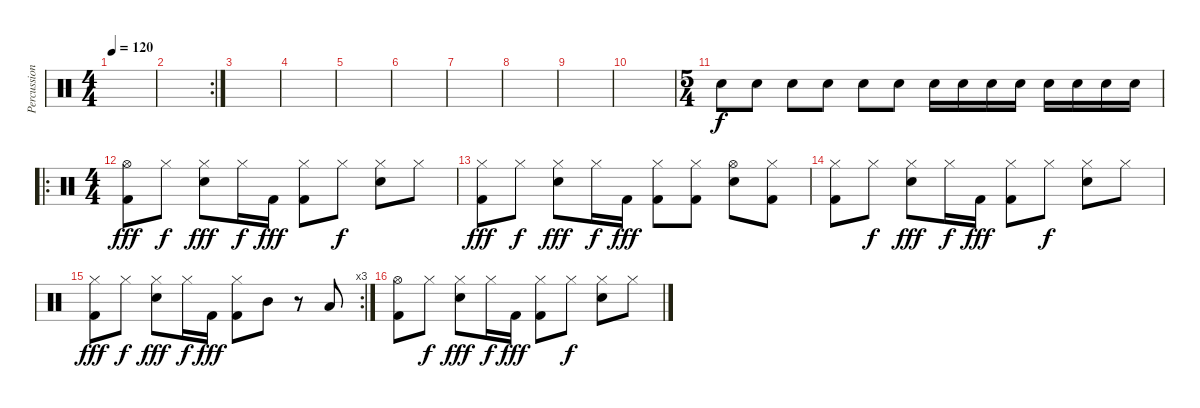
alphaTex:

\track ("Percussions" "Percussion") {instrument percussion}
\staff {score}
\articulation defaults
\ts (4 4)
\tempo 120
\clef neutral
\ks c
|
\rc 2
|
|
|
|
|
|
|
|
|
\ts (5 4)
"Snare (hit) 2".8{dy f} "Snare (hit) 2".8 "Snare (hit) 2".8 "Snare (hit) 2".8 "Snare (hit) 2".8 "Snare (hit) 2".8 "Snare (hit) 2".16 "Snare (hit) 2".16 "Snare (hit) 2".16 "Snare (hit) 2".16 "Snare (hit) 2".16 "Snare (hit) 2".16 "Snare (hit) 2".16 "Snare (hit) 2".16 |
\ro
\ts (4 4)
("Kick (hit) 2" "Hi-Hat (open)").8{dy fff} "Hi-Hat (closed)".8{dy f} ("Snare (hit) 2" "Hi-Hat (closed)").8{dy fff} "Hi-Hat (closed)".16{dy f} "Kick (hit) 2".16{dy fff} ("Kick (hit) 2" "Hi-Hat (closed)").8 "Hi-Hat (closed)".8{dy f} ("Snare (hit) 2" "Hi-Hat (closed)").8 "Hi-Hat (closed)".8 |
("Kick (hit) 2" "Hi-Hat (closed)").8{dy fff} "Hi-Hat (closed)".8{dy f} ("Snare (hit) 2" "Hi-Hat (closed)").8{dy fff} "Hi-Hat (closed)".16{dy f} "Kick (hit) 2".16{dy fff} ("Kick (hit) 2" "Hi-Hat (closed)").8 ("Kick (hit) 2" "Hi-Hat (closed)").8 ("Snare (hit) 2" "Hi-Hat (open)").8 ("Kick (hit) 2" "Hi-Hat (closed)").8 |
("Kick (hit) 2" "Hi-Hat (closed)").8 "Hi-Hat (closed)".8{dy f} ("Snare (hit) 2" "Hi-Hat (closed)").8{dy fff} "Hi-Hat (closed)".16{dy f} "Kick (hit) 2".16{dy fff} ("Kick (hit) 2" "Hi-Hat (closed)").8 "Hi-Hat (closed)".8{dy f} ("Snare (hit) 2" "Hi-Hat (closed)").8 "Hi-Hat (closed)".8 |
\rc 3
("Kick (hit) 2" "Hi-Hat (closed)").8{dy fff} "Hi-Hat (closed)".8{dy f} ("Snare (hit) 2" "Hi-Hat (closed)").8{dy fff} "Hi-Hat (closed)".16{dy f} "Kick (hit) 2".16{dy fff} ("Kick (hit) 2" "Hi-Hat (closed)").8 "Mid Tom (hit)".8 r.8 "Low Floor Tom (hit)".8 |
("Kick (hit) 2" "Hi-Hat (open)").8 "Hi-Hat (closed)".8{dy f} ("Snare (hit) 2" "Hi-Hat (closed)").8{dy fff} "Hi-Hat (closed)".16{dy f} "Kick (hit) 2".16{dy fff} ("Kick (hit) 2" "Hi-Hat (closed)").8 "Hi-Hat (closed)".8{dy f} ("Snare (hit) 2" "Hi-Hat (closed)").8 "Hi-Hat (closed)".8
